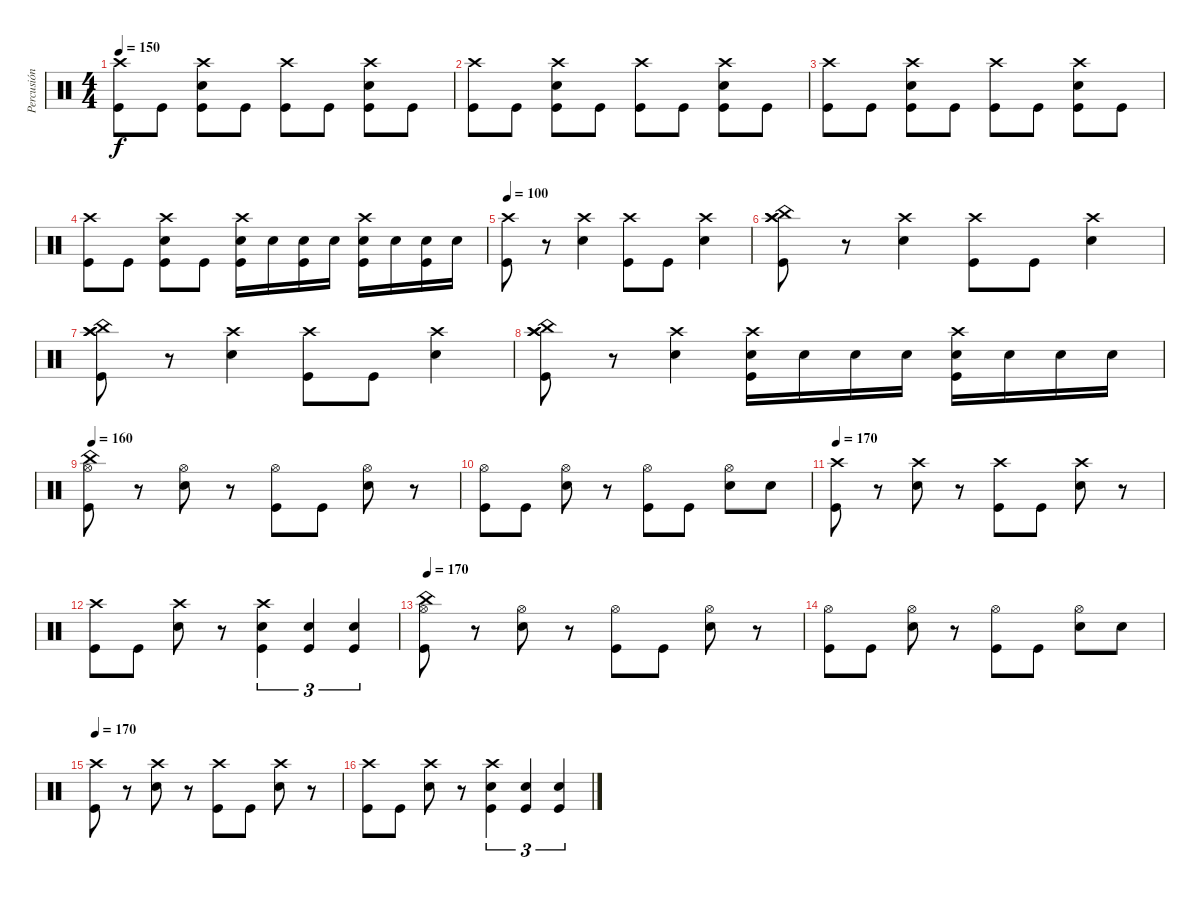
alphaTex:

\track ("Percusión  Gabriela" "Percusión ") {instrument percussion}
\staff {score}
\articulation defaults
\ts (4 4)
\tempo 150
\clef neutral
\ks c
("Crash high (hit)" "Kick (hit)").8{dy f} "Kick (hit)".8 ("Snare (hit) 2" "Crash high (hit)" "Kick (hit)").8 "Kick (hit)".8 ("Crash high (hit)" "Kick (hit)").8 "Kick (hit)".8 ("Snare (hit) 2" "Crash high (hit)" "Kick (hit)").8 "Kick (hit)".8 |
("Crash high (hit)" "Kick (hit)").8 "Kick (hit)".8 ("Snare (hit) 2" "Crash high (hit)" "Kick (hit)").8 "Kick (hit)".8 ("Crash high (hit)" "Kick (hit)").8 "Kick (hit)".8 ("Snare (hit) 2" "Crash high (hit)" "Kick (hit)").8 "Kick (hit)".8 |
("Crash high (hit)" "Kick (hit)").8 "Kick (hit)".8 ("Snare (hit) 2" "Crash high (hit)" "Kick (hit)").8 "Kick (hit)".8 ("Crash high (hit)" "Kick (hit)").8 "Kick (hit)".8 ("Snare (hit) 2" "Crash high (hit)" "Kick (hit)").8 "Kick (hit)".8 |
("Crash high (hit)" "Kick (hit)").8 "Kick (hit)".8 ("Snare (hit) 2" "Crash high (hit)" "Kick (hit)").8 "Kick (hit)".8 ("Snare (hit) 2" "Crash high (hit)" "Kick (hit)").16 "Snare (hit) 2".16 ("Snare (hit) 2" "Kick (hit)").16 "Snare (hit) 2".16 ("Snare (hit) 2" "Crash high (hit)" "Kick (hit)").16 "Snare (hit) 2".16 ("Snare (hit) 2" "Kick (hit)").16 "Snare (hit) 2".16 |
\tempo 100
("Crash high (hit)" "Kick (hit)").8 r.8 ("Snare (hit) 2" "Crash high (hit)").4 ("Crash high (hit)" "Kick (hit)").8 "Kick (hit)".8 ("Snare (hit) 2" "Crash high (hit)").4 |
("Crash high (hit)" "China (hit)" "Crash high (hit)" "Kick (hit)").8 r.8 ("Snare (hit) 2" "Crash high (hit)").4 ("Crash high (hit)" "Kick (hit)").8 "Kick (hit)".8 ("Snare (hit) 2" "Crash high (hit)").4 |
("Crash high (hit)" "China (hit)" "Crash high (hit)" "Kick (hit)").8 r.8 ("Snare (hit) 2" "Crash high (hit)").4 ("Crash high (hit)" "Kick (hit)").8 "Kick (hit)".8 ("Snare (hit) 2" "Crash high (hit)").4 |
("Crash high (hit)" "China (hit)" "Crash high (hit)" "Kick (hit)").8 r.8 ("Snare (hit) 2" "Crash high (hit)").4 ("Snare (hit) 2" "Crash high (hit)" "Kick (hit)").16 "Snare (hit) 2".16 "Snare (hit) 2".16 "Snare (hit) 2".16 ("Kick (hit)" "Snare (hit) 2" "Crash high (hit)").16 "Snare (hit) 2".16 "Snare (hit) 2".16 "Snare (hit) 2".16 |
\tempo 160
("Hi-Hat (open)" "China (hit)" "Kick (hit)").8 r.8 ("Hi-Hat (open)" "Snare (hit) 2").8 r.8 ("Hi-Hat (open)" "Kick (hit)").8 "Kick (hit)".8 ("Snare (hit) 2" "Hi-Hat (open)").8 r.8 |
("Hi-Hat (open)" "Kick (hit)").8 "Kick (hit)".8 ("Hi-Hat (open)" "Snare (hit) 2").8 r.8 ("Hi-Hat (open)" "Kick (hit)").8 "Kick (hit)".8 ("Hi-Hat (open)" "Snare (hit) 2").8 "Snare (hit) 2".8 |
\tempo 170
("Crash high (hit)" "Kick (hit)").8 r.8 ("Crash high (hit)" "Snare (hit) 2").8 r.8 ("Crash high (hit)" "Kick (hit)").8 "Kick (hit)".8 ("Snare (hit) 2" "Crash high (hit)").8 r.8 |
("Crash high (hit)" "Kick (hit)").8 "Kick (hit)".8 ("Crash high (hit)" "Snare (hit) 2").8 r.8 ("Crash high (hit)" "Snare (hit) 2" "Kick (hit)").4{tu (3 2)} ("Snare (hit) 2" "Kick (hit)").4{tu (3 2)} ("Kick (hit)" "Snare (hit) 2").4{tu (3 2)} |
\tempo 170
("Hi-Hat (open)" "China (hit)" "Kick (hit)").8 r.8 ("Hi-Hat (open)" "Snare (hit) 2").8 r.8 ("Hi-Hat (open)" "Kick (hit)").8 "Kick (hit)".8 ("Snare (hit) 2" "Hi-Hat (open)").8 r.8 |
("Hi-Hat (open)" "Kick (hit)").8 "Kick (hit)".8 ("Hi-Hat (open)" "Snare (hit) 2").8 r.8 ("Hi-Hat (open)" "Kick (hit)").8 "Kick (hit)".8 ("Hi-Hat (open)" "Snare (hit) 2").8 "Snare (hit) 2".8 |
\tempo 170
("Crash high (hit)" "Kick (hit)").8 r.8 ("Crash high (hit)" "Snare (hit) 2").8 r.8 ("Crash high (hit)" "Kick (hit)").8 "Kick (hit)".8 ("Snare (hit) 2" "Crash high (hit)").8 r.8 |
("Crash high (hit)" "Kick (hit)").8 "Kick (hit)".8 ("Crash high (hit)" "Snare (hit) 2").8 r.8 ("Crash high (hit)" "Snare (hit) 2" "Kick (hit)").4{tu (3 2)} ("Snare (hit) 2" "Kick (hit)").4{tu (3 2)} ("Kick (hit)" "Snare (hit) 2").4{tu (3 2)}
